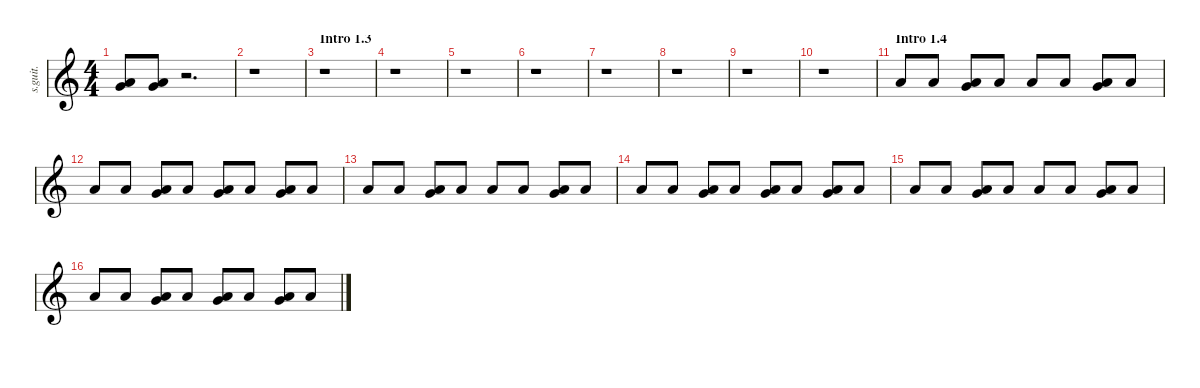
\defaultSystemsLayout 4
\hideDynamics
\bracketExtendMode nobrackets
\track ("Clown" "s.guit.") {instrument percussion}
\staff {score}
\articulation defaults
\ts (4 4)
\tempo (192 hide)
\clef g2
\ks c
("Very Low Tom (hit)" "Low Floor Tom (hit)").8{lyrics (0 "") lyrics (1 "") lyrics (2 "") lyrics (3 "") lyrics (4 "") dy f} ("Very Low Tom (hit)" "Low Floor Tom (hit)").8{lyrics (0 "") lyrics (1 "") lyrics (2 "") lyrics (3 "") lyrics (4 "")} r.2{d} |
r.1 |
\section ("" "Intro 1.3")
\tempo (195 hide)
r.1 |
r.1 |
r.1 |
\tempo (200 hide)
r.1 |
\tempo (205 hide)
r.1 |
r.1 |
r.1 |
r.1 |
\section ("" "Intro 1.4")
\tempo (210 hide)
"Low Floor Tom (hit)".8{lyrics (0 "") lyrics (1 "") lyrics (2 "") lyrics (3 "") lyrics (4 "")} "Low Floor Tom (hit)".8{lyrics (0 "") lyrics (1 "") lyrics (2 "") lyrics (3 "") lyrics (4 "")} ("Very Low Tom (hit)" "Low Floor Tom (hit)").8{lyrics (0 "") lyrics (1 "") lyrics (2 "") lyrics (3 "") lyrics (4 "")} "Low Floor Tom (hit)".8{lyrics (0 "") lyrics (1 "") lyrics (2 "") lyrics (3 "") lyrics (4 "")} "Low Floor Tom (hit)".8{lyrics (0 "") lyrics (1 "") lyrics (2 "") lyrics (3 "") lyrics (4 "")} "Low Floor Tom (hit)".8{lyrics (0 "") lyrics (1 "") lyrics (2 "") lyrics (3 "") lyrics (4 "")} ("Very Low Tom (hit)" "Low Floor Tom (hit)").8{lyrics (0 "") lyrics (1 "") lyrics (2 "") lyrics (3 "") lyrics (4 "")} "Low Floor Tom (hit)".8{lyrics (0 "") lyrics (1 "") lyrics (2 "") lyrics (3 "") lyrics (4 "")} |
"Low Floor Tom (hit)".8{lyrics (0 "") lyrics (1 "") lyrics (2 "") lyrics (3 "") lyrics (4 "")} "Low Floor Tom (hit)".8{lyrics (0 "") lyrics (1 "") lyrics (2 "") lyrics (3 "") lyrics (4 "")} ("Very Low Tom (hit)" "Low Floor Tom (hit)").8{lyrics (0 "") lyrics (1 "") lyrics (2 "") lyrics (3 "") lyrics (4 "")} "Low Floor Tom (hit)".8{lyrics (0 "") lyrics (1 "") lyrics (2 "") lyrics (3 "") lyrics (4 "")} ("Very Low Tom (hit)" "Low Floor Tom (hit)").8{lyrics (0 "") lyrics (1 "") lyrics (2 "") lyrics (3 "") lyrics (4 "")} "Low Floor Tom (hit)".8{lyrics (0 "") lyrics (1 "") lyrics (2 "") lyrics (3 "") lyrics (4 "")} ("Very Low Tom (hit)" "Low Floor Tom (hit)").8{lyrics (0 "") lyrics (1 "") lyrics (2 "") lyrics (3 "") lyrics (4 "")} "Low Floor Tom (hit)".8{lyrics (0 "") lyrics (1 "") lyrics (2 "") lyrics (3 "") lyrics (4 "")} |
"Low Floor Tom (hit)".8{lyrics (0 "") lyrics (1 "") lyrics (2 "") lyrics (3 "") lyrics (4 "")} "Low Floor Tom (hit)".8{lyrics (0 "") lyrics (1 "") lyrics (2 "") lyrics (3 "") lyrics (4 "")} ("Very Low Tom (hit)" "Low Floor Tom (hit)").8{lyrics (0 "") lyrics (1 "") lyrics (2 "") lyrics (3 "") lyrics (4 "")} "Low Floor Tom (hit)".8{lyrics (0 "") lyrics (1 "") lyrics (2 "") lyrics (3 "") lyrics (4 "")} "Low Floor Tom (hit)".8{lyrics (0 "") lyrics (1 "") lyrics (2 "") lyrics (3 "") lyrics (4 "")} "Low Floor Tom (hit)".8{lyrics (0 "") lyrics (1 "") lyrics (2 "") lyrics (3 "") lyrics (4 "")} ("Very Low Tom (hit)" "Low Floor Tom (hit)").8{lyrics (0 "") lyrics (1 "") lyrics (2 "") lyrics (3 "") lyrics (4 "")} "Low Floor Tom (hit)".8{lyrics (0 "") lyrics (1 "") lyrics (2 "") lyrics (3 "") lyrics (4 "")} |
"Low Floor Tom (hit)".8{lyrics (0 "") lyrics (1 "") lyrics (2 "") lyrics (3 "") lyrics (4 "")} "Low Floor Tom (hit)".8{lyrics (0 "") lyrics (1 "") lyrics (2 "") lyrics (3 "") lyrics (4 "")} ("Very Low Tom (hit)" "Low Floor Tom (hit)").8{lyrics (0 "") lyrics (1 "") lyrics (2 "") lyrics (3 "") lyrics (4 "")} "Low Floor Tom (hit)".8{lyrics (0 "") lyrics (1 "") lyrics (2 "") lyrics (3 "") lyrics (4 "")} ("Very Low Tom (hit)" "Low Floor Tom (hit)").8{lyrics (0 "") lyrics (1 "") lyrics (2 "") lyrics (3 "") lyrics (4 "")} "Low Floor Tom (hit)".8{lyrics (0 "") lyrics (1 "") lyrics (2 "") lyrics (3 "") lyrics (4 "")} ("Very Low Tom (hit)" "Low Floor Tom (hit)").8{lyrics (0 "") lyrics (1 "") lyrics (2 "") lyrics (3 "") lyrics (4 "")} "Low Floor Tom (hit)".8{lyrics (0 "") lyrics (1 "") lyrics (2 "") lyrics (3 "") lyrics (4 "")} |
"Low Floor Tom (hit)".8{lyrics (0 "") lyrics (1 "") lyrics (2 "") lyrics (3 "") lyrics (4 "")} "Low Floor Tom (hit)".8{lyrics (0 "") lyrics (1 "") lyrics (2 "") lyrics (3 "") lyrics (4 "")} ("Very Low Tom (hit)" "Low Floor Tom (hit)").8{lyrics (0 "") lyrics (1 "") lyrics (2 "") lyrics (3 "") lyrics (4 "")} "Low Floor Tom (hit)".8{lyrics (0 "") lyrics (1 "") lyrics (2 "") lyrics (3 "") lyrics (4 "")} "Low Floor Tom (hit)".8{lyrics (0 "") lyrics (1 "") lyrics (2 "") lyrics (3 "") lyrics (4 "")} "Low Floor Tom (hit)".8{lyrics (0 "") lyrics (1 "") lyrics (2 "") lyrics (3 "") lyrics (4 "")} ("Very Low Tom (hit)" "Low Floor Tom (hit)").8{lyrics (0 "") lyrics (1 "") lyrics (2 "") lyrics (3 "") lyrics (4 "")} "Low Floor Tom (hit)".8{lyrics (0 "") lyrics (1 "") lyrics (2 "") lyrics (3 "") lyrics (4 "")} |
"Low Floor Tom (hit)".8{lyrics (0 "") lyrics (1 "") lyrics (2 "") lyrics (3 "") lyrics (4 "")} "Low Floor Tom (hit)".8{lyrics (0 "") lyrics (1 "") lyrics (2 "") lyrics (3 "") lyrics (4 "")} ("Very Low Tom (hit)" "Low Floor Tom (hit)").8{lyrics (0 "") lyrics (1 "") lyrics (2 "") lyrics (3 "") lyrics (4 "")} "Low Floor Tom (hit)".8{lyrics (0 "") lyrics (1 "") lyrics (2 "") lyrics (3 "") lyrics (4 "")} ("Very Low Tom (hit)" "Low Floor Tom (hit)").8{lyrics (0 "") lyrics (1 "") lyrics (2 "") lyrics (3 "") lyrics (4 "")} "Low Floor Tom (hit)".8{lyrics (0 "") lyrics (1 "") lyrics (2 "") lyrics (3 "") lyrics (4 "")} ("Very Low Tom (hit)" "Low Floor Tom (hit)").8{lyrics (0 "") lyrics (1 "") lyrics (2 "") lyrics (3 "") lyrics (4 "")} "Low Floor Tom (hit)".8{lyrics (0 "") lyrics (1 "") lyrics (2 "") lyrics (3 "") lyrics (4 "")}
